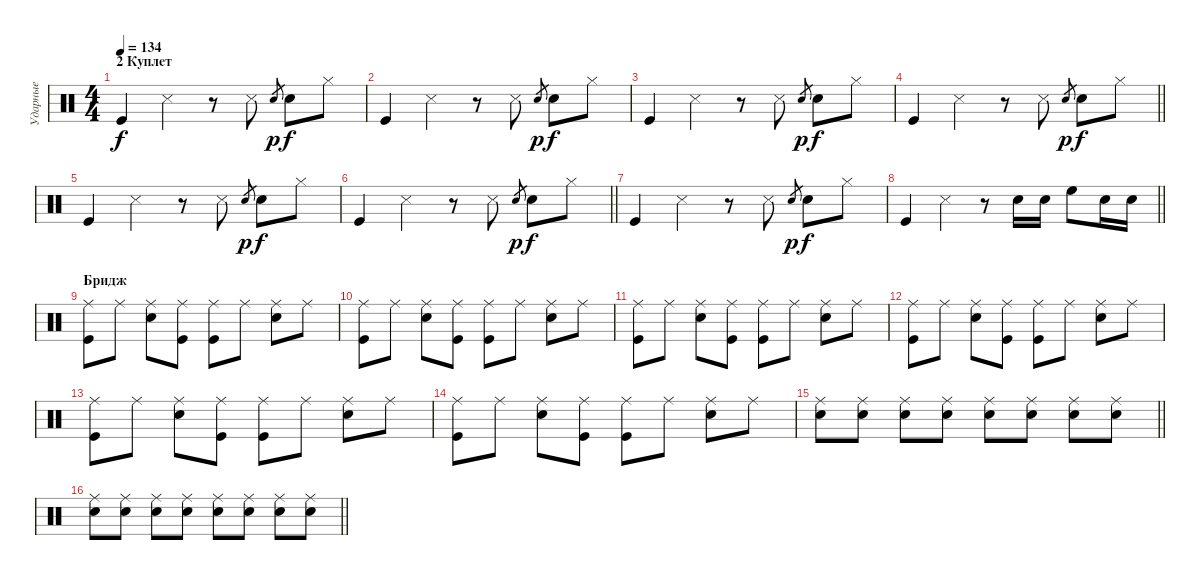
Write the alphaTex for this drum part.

\track ("Ударные" "Ударные") {instrument percussion}
\staff {score}
\articulation defaults
\ts (4 4)
\section ("" "2 Куплет")
\tempo 134
\clef neutral
\ks c "Kick (hit)".4{dy f} "Snare (side stick) 3".4
r.8 "Snare (side stick) 3".8 "Snare (hit) 2".8{gr dy p} "Snare (hit) 2".8{dy f} "Hi-Hat (closed)".8 |
"Kick (hit)".4 "Snare (side stick) 3".4 r.8 "Snare (side stick) 3".8 "Snare (hit) 2".8{gr dy p} "Snare (hit) 2".8{dy f} "Hi-Hat (closed)".8 |
"Kick (hit)".4 "Snare (side stick) 3".4 r.8 "Snare (side stick) 3".8 "Snare (hit) 2".8{gr dy p} "Snare (hit) 2".8{dy f} "Hi-Hat (closed)".8 |
\barLineRight lightlight "Kick (hit)".4 "Snare (side stick) 3".4
r.8 "Snare (side stick) 3".8 "Snare (hit) 2".8{gr dy p} "Snare (hit) 2".8{dy f} "Hi-Hat (closed)".8 |
"Kick (hit)".4 "Snare (side stick) 3".4 r.8 "Snare (side stick) 3".8 "Snare (hit) 2".8{gr dy p} "Snare (hit) 2".8{dy f} "Hi-Hat (closed)".8 |
\barLineRight lightlight "Kick (hit)".4 "Snare (side stick) 3".4
r.8 "Snare (side stick) 3".8 "Snare (hit) 2".8{gr dy p} "Snare (hit) 2".8{dy f} "Hi-Hat (closed)".8 |
"Kick (hit)".4 "Snare (side stick) 3".4 r.8 "Snare (side stick) 3".8 "Snare (hit) 2".8{gr dy p} "Snare (hit) 2".8{dy f} "Hi-Hat (closed)".8 |
\barLineRight lightlight "Kick (hit)".4 "Snare (side stick) 3".4
r.8 "Snare (hit) 2".16 "Snare (hit) 2".16 "High Floor Tom (hit)".8 "Snare (hit) 2".16 "Snare (hit) 2".16 |
\section ("" "Бридж")
("Ride (middle)" "Kick (hit)").8 "Ride (middle)".8 ("Ride (middle)" "Snare (hit) 2").8 ("Ride (middle)" "Kick (hit)").8 ("Ride (middle)" "Kick (hit)").8 "Ride (middle)".8 ("Ride (middle)" "Snare (hit) 2").8 "Ride (middle)".8 |
("Ride (middle)" "Kick (hit)").8 "Ride (middle)".8 ("Ride (middle)" "Snare (hit) 2").8 ("Ride (middle)" "Kick (hit)").8 ("Ride (middle)" "Kick (hit)").8 "Ride (middle)".8 ("Ride (middle)" "Snare (hit) 2").8 "Ride (middle)".8 |
("Ride (middle)" "Kick (hit)").8 "Ride (middle)".8 ("Ride (middle)" "Snare (hit) 2").8 ("Ride (middle)" "Kick (hit)").8 ("Ride (middle)" "Kick (hit)").8 "Ride (middle)".8 ("Ride (middle)" "Snare (hit) 2").8 "Ride (middle)".8 |
("Ride (middle)" "Kick (hit)").8 "Ride (middle)".8 ("Ride (middle)" "Snare (hit) 2").8 ("Ride (middle)" "Kick (hit)").8 ("Ride (middle)" "Kick (hit)").8 "Ride (middle)".8 ("Ride (middle)" "Snare (hit) 2").8 "Ride (middle)".8 |
("Ride (middle)" "Kick (hit)").8 "Ride (middle)".8 ("Ride (middle)" "Snare (hit) 2").8 ("Ride (middle)" "Kick (hit)").8 ("Ride (middle)" "Kick (hit)").8 "Ride (middle)".8 ("Ride (middle)" "Snare (hit) 2").8 "Ride (middle)".8 |
("Ride (middle)" "Kick (hit)").8 "Ride (middle)".8 ("Ride (middle)" "Snare (hit) 2").8 ("Ride (middle)" "Kick (hit)").8 ("Ride (middle)" "Kick (hit)").8 "Ride (middle)".8 ("Ride (middle)" "Snare (hit) 2").8 "Ride (middle)".8 |
\barLineRight lightlight
("Ride (middle)" "Snare (hit) 2").8 ("Ride (middle)" "Snare (hit) 2").8 ("Ride (middle)" "Snare (hit) 2").8 ("Ride (middle)" "Snare (hit) 2").8 ("Ride (middle)" "Snare (hit) 2").8 ("Ride (middle)" "Snare (hit) 2").8 ("Ride (middle)" "Snare (hit) 2").8 ("Ride (middle)" "Snare (hit) 2").8 |
\barLineRight lightlight
("Ride (middle)" "Snare (hit) 2").8 ("Ride (middle)" "Snare (hit) 2").8 ("Ride (middle)" "Snare (hit) 2").8 ("Ride (middle)" "Snare (hit) 2").8 ("Ride (middle)" "Snare (hit) 2").8 ("Ride (middle)" "Snare (hit) 2").8 ("Ride (middle)" "Snare (hit) 2").8 ("Ride (middle)" "Snare (hit) 2").8
